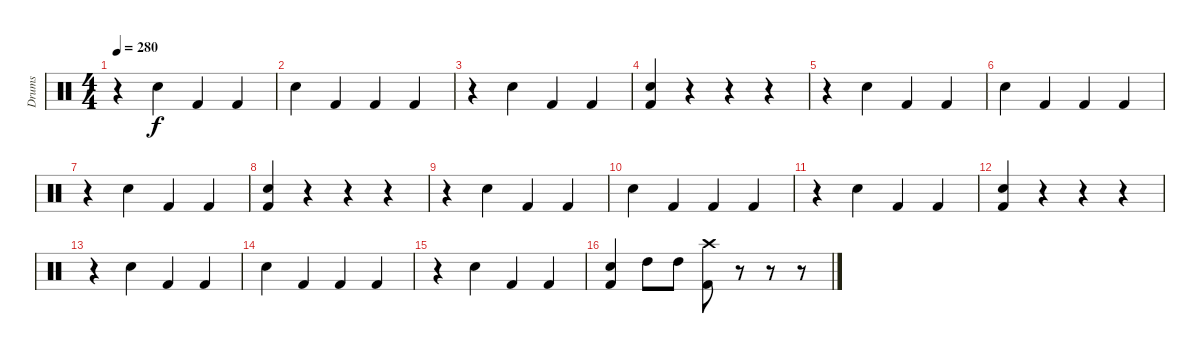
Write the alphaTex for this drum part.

\track ("Drums" "Drums") {instrument percussion}
\staff {score}
\articulation defaults
\ts (4 4)
\tempo 280
\clef neutral
\ks c
r.4{dy f} "Electric Snare (hit)".4 "Kick (hit) 2".4 "Kick (hit) 2".4 |
"Electric Snare (hit)".4 "Kick (hit) 2".4 "Kick (hit) 2".4 "Kick (hit) 2".4 |
r.4 "Electric Snare (hit)".4 "Kick (hit) 2".4 "Kick (hit) 2".4 |
("Electric Snare (hit)" "Kick (hit) 2").4 r.4 r.4 r.4 |
r.4 "Electric Snare (hit)".4 "Kick (hit) 2".4 "Kick (hit) 2".4 |
"Electric Snare (hit)".4 "Kick (hit) 2".4 "Kick (hit) 2".4 "Kick (hit) 2".4 |
r.4 "Electric Snare (hit)".4 "Kick (hit) 2".4 "Kick (hit) 2".4 |
("Electric Snare (hit)" "Kick (hit) 2").4 r.4 r.4 r.4 |
r.4 "Electric Snare (hit)".4 "Kick (hit) 2".4 "Kick (hit) 2".4 |
"Electric Snare (hit)".4 "Kick (hit) 2".4 "Kick (hit) 2".4 "Kick (hit) 2".4 |
r.4 "Electric Snare (hit)".4 "Kick (hit) 2".4 "Kick (hit) 2".4 |
("Electric Snare (hit)" "Kick (hit) 2").4 r.4 r.4 r.4 |
r.4 "Electric Snare (hit)".4 "Kick (hit) 2".4 "Kick (hit) 2".4 |
"Electric Snare (hit)".4 "Kick (hit) 2".4 "Kick (hit) 2".4 "Kick (hit) 2".4 |
r.4 "Electric Snare (hit)".4 "Kick (hit) 2".4 "Kick (hit) 2".4 |
("Electric Snare (hit)" "Kick (hit) 2").4 "High Tom (hit)".8 "High Tom (hit)".8 ("Crash high (hit)" "Kick (hit) 2").8 r.8 r.8 r.8
